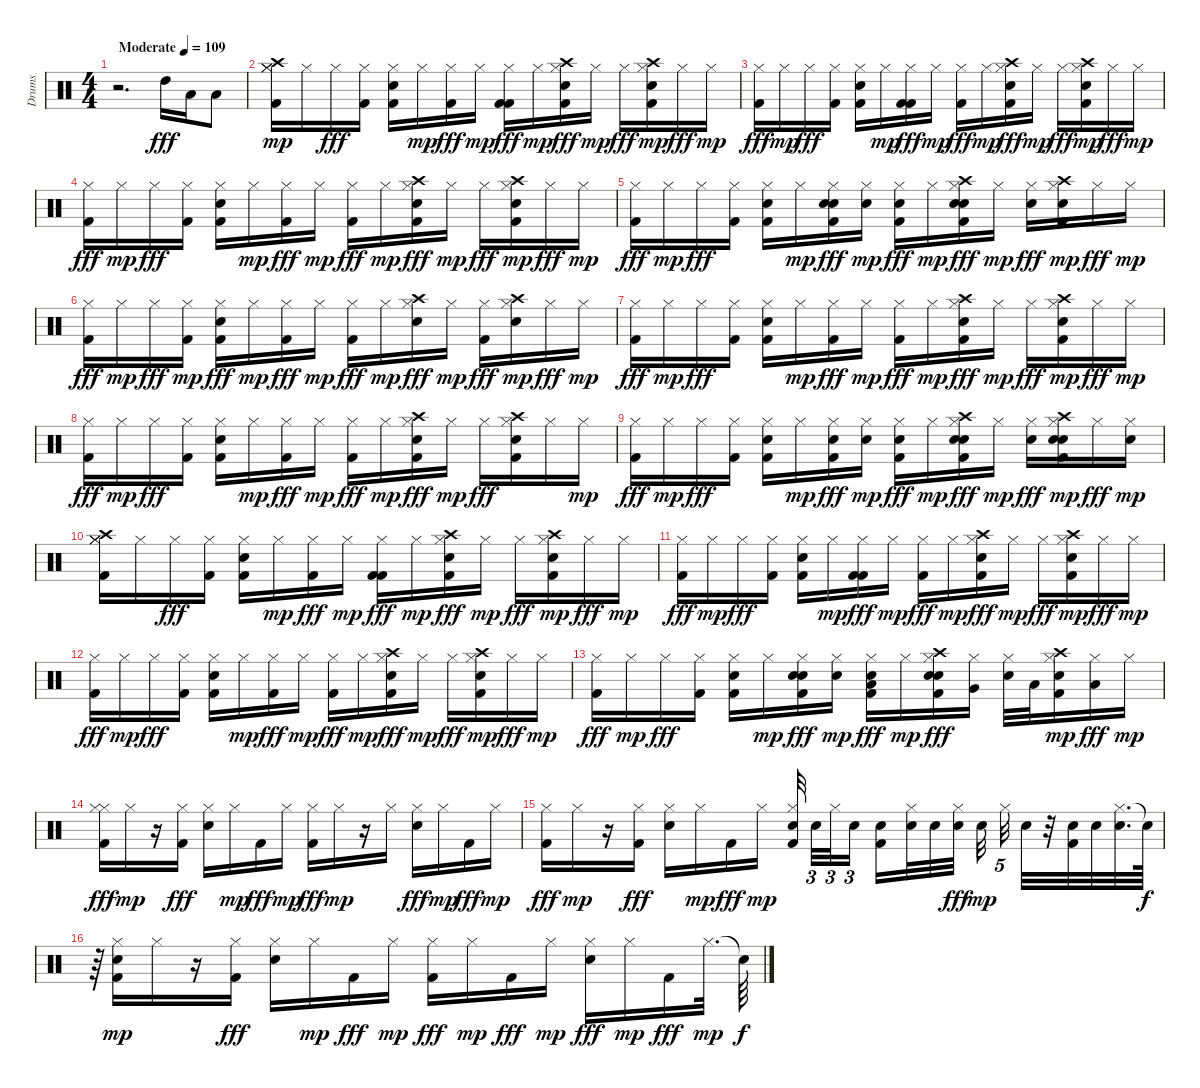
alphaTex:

\track ("Drums" "Drums") {instrument percussion}
\staff {score}
\articulation defaults
\ts (4 4)
\tempo (109 "Moderate")
\clef neutral
\ks c
r.2{d dy fff} "High Tom (hit)".16 "Low Tom (hit)".16 "Low Floor Tom (hit)".8 |
("Crash high (hit)" "Kick (hit) 2" "Hi-Hat (closed)" "Hi-Hat (closed)" "Hi-Hat (closed)").16{dy mp} "Hi-Hat (closed)".16 "Hi-Hat (closed)".16{dy fff} ("Hi-Hat (closed)" "Kick (hit) 2").16 ("Snare (hit) 2" "Kick (hit) 2" "Hi-Hat (closed)").16 "Hi-Hat (closed)".16{dy mp} ("Kick (hit) 2" "Hi-Hat (closed)").16{dy fff} "Hi-Hat (closed)".16{dy mp} ("Kick (hit) 2" "Kick (hit) 2" "Hi-Hat (closed)").16{dy fff} "Hi-Hat (closed)".16{dy mp} ("Crash high (hit)" "Snare (hit) 2" "Kick (hit) 2" "Hi-Hat (closed)").16{dy fff} "Hi-Hat (closed)".16{dy mp} "Hi-Hat (closed)".16{dy fff} ("Crash high (hit)" "Snare (hit) 2" "Kick (hit) 2" "Hi-Hat (closed)").16{dy mp} "Hi-Hat (closed)".16{dy fff} "Hi-Hat (closed)".16{dy mp} |
("Kick (hit) 2" "Hi-Hat (closed)").16{dy fff} "Hi-Hat (closed)".16{dy mp} "Hi-Hat (closed)".16{dy fff} ("Hi-Hat (closed)" "Kick (hit) 2").16 ("Snare (hit) 2" "Kick (hit) 2" "Hi-Hat (closed)").16 "Hi-Hat (closed)".16{dy mp} ("Kick (hit) 2" "Kick (hit) 2" "Hi-Hat (closed)").16{dy fff} "Hi-Hat (closed)".16{dy mp} ("Kick (hit) 2" "Hi-Hat (closed)").16{dy fff} "Hi-Hat (closed)".16{dy mp} ("Hi-Hat (closed)" "Crash high (hit)" "Snare (hit) 2" "Kick (hit) 2").16{dy fff} "Hi-Hat (closed)".16{dy mp} "Hi-Hat (closed)".16{dy fff} ("Kick (hit) 2" "Crash high (hit)" "Snare (hit) 2" "Hi-Hat (closed)").16{dy mp} "Hi-Hat (closed)".16{dy fff} "Hi-Hat (closed)".16{dy mp} |
("Kick (hit) 2" "Hi-Hat (closed)").16{dy fff} "Hi-Hat (closed)".16{dy mp} "Hi-Hat (closed)".16{dy fff} ("Hi-Hat (closed)" "Kick (hit) 2").16 ("Hi-Hat (closed)" "Snare (hit) 2" "Kick (hit) 2").16 "Hi-Hat (closed)".16{dy mp} ("Kick (hit) 2" "Hi-Hat (closed)").16{dy fff} "Hi-Hat (closed)".16{dy mp} ("Hi-Hat (closed)" "Kick (hit) 2").16{dy fff} "Hi-Hat (closed)".16{dy mp} ("Hi-Hat (closed)" "Crash high (hit)" "Kick (hit) 2" "Snare (hit) 2").16{dy fff} "Hi-Hat (closed)".16{dy mp} "Hi-Hat (closed)".16{dy fff} ("Crash high (hit)" "Kick (hit) 2" "Snare (hit) 2" "Hi-Hat (closed)").16{dy mp} "Hi-Hat (closed)".16{dy fff} "Hi-Hat (closed)".16{dy mp} |
("Kick (hit) 2" "Hi-Hat (closed)").16{dy fff} "Hi-Hat (closed)".16{dy mp} "Hi-Hat (closed)".16{dy fff} ("Hi-Hat (closed)" "Kick (hit) 2").16 ("Hi-Hat (closed)" "Snare (hit) 2" "Kick (hit) 2").16 "Hi-Hat (closed)".16{dy mp} ("Hi-Hat (closed)" "Kick (hit) 2" "Snare (hit) 2" "Snare (hit) 2").16{dy fff} ("Hi-Hat (closed)" "Snare (hit) 2").16{dy mp} ("Snare (hit) 2" "Hi-Hat (closed)" "Kick (hit) 2").16{dy fff} "Hi-Hat (closed)".16{dy mp} ("Snare (hit) 2" "Hi-Hat (closed)" "Crash high (hit)" "Snare (hit) 2" "Kick (hit) 2").16{dy fff} "Hi-Hat (closed)".16{dy mp} ("Snare (hit) 2" "Hi-Hat (closed)").16{dy fff} ("Kick (hit) 2" "Crash high (hit)" "Snare (hit) 2" "Hi-Hat (closed)").16{dy mp} "Hi-Hat (closed)".16{dy fff} "Hi-Hat (closed)".16{dy mp} |
("Hi-Hat (closed)" "Kick (hit) 2").16{dy fff} "Hi-Hat (closed)".16{dy mp} "Hi-Hat (closed)".16{dy fff} ("Kick (hit) 2" "Hi-Hat (closed)").16{dy mp} ("Hi-Hat (closed)" "Snare (hit) 2" "Kick (hit) 2").16{dy fff} "Hi-Hat (closed)".16{dy mp} ("Kick (hit) 2" "Hi-Hat (closed)").16{dy fff} "Hi-Hat (closed)".16{dy mp} ("Kick (hit) 2" "Hi-Hat (closed)").16{dy fff} "Hi-Hat (closed)".16{dy mp} ("Snare (hit) 2" "Crash high (hit)" "Hi-Hat (closed)").16{dy fff} "Hi-Hat (closed)".16{dy mp} ("Kick (hit) 2" "Hi-Hat (closed)").16{dy fff} ("Snare (hit) 2" "Crash high (hit)" "Hi-Hat (closed)").16{dy mp} "Hi-Hat (closed)".16{dy fff} "Hi-Hat (closed)".16{dy mp} |
("Kick (hit) 2" "Hi-Hat (closed)").16{dy fff} "Hi-Hat (closed)".16{dy mp} "Hi-Hat (closed)".16{dy fff} ("Hi-Hat (closed)" "Kick (hit) 2").16 ("Snare (hit) 2" "Kick (hit) 2" "Hi-Hat (closed)").16 "Hi-Hat (closed)".16{dy mp} ("Hi-Hat (closed)" "Kick (hit) 2").16{dy fff} "Hi-Hat (closed)".16{dy mp} ("Kick (hit) 2" "Hi-Hat (closed)").16{dy fff} "Hi-Hat (closed)".16{dy mp} ("Hi-Hat (closed)" "Snare (hit) 2" "Kick (hit) 2" "Crash high (hit)").16{dy fff} "Hi-Hat (closed)".16{dy mp} "Hi-Hat (closed)".16{dy fff} ("Snare (hit) 2" "Kick (hit) 2" "Crash high (hit)" "Hi-Hat (closed)").16{dy mp} "Hi-Hat (closed)".16{dy fff} "Hi-Hat (closed)".16{dy mp} |
("Kick (hit) 2" "Hi-Hat (closed)").16{dy fff} "Hi-Hat (closed)".16{dy mp} "Hi-Hat (closed)".16{dy fff} ("Hi-Hat (closed)" "Kick (hit) 2").16 ("Snare (hit) 2" "Kick (hit) 2" "Hi-Hat (closed)").16 "Hi-Hat (closed)".16{dy mp} ("Kick (hit) 2" "Hi-Hat (closed)").16{dy fff} "Hi-Hat (closed)".16{dy mp} ("Kick (hit) 2" "Hi-Hat (closed)").16{dy fff} "Hi-Hat (closed)".16{dy mp} ("Crash high (hit)" "Kick (hit) 2" "Snare (hit) 2" "Hi-Hat (closed)").16{dy fff} "Hi-Hat (closed)".16{dy mp} "Hi-Hat (closed)".16{dy fff} ("Hi-Hat (closed)" "Crash high (hit)" "Kick (hit) 2" "Snare (hit) 2").16 "Hi-Hat (closed)".16 "Hi-Hat (closed)".16{dy mp} |
("Kick (hit) 2" "Hi-Hat (closed)").16{dy fff} "Hi-Hat (closed)".16{dy mp} "Hi-Hat (closed)".16{dy fff} ("Hi-Hat (closed)" "Kick (hit) 2").16 ("Snare (hit) 2" "Kick (hit) 2" "Hi-Hat (closed)").16 "Hi-Hat (closed)".16{dy mp} ("Kick (hit) 2" "Hi-Hat (closed)" "Snare (hit) 2").16{dy fff} ("Snare (hit) 2" "Hi-Hat (closed)").16{dy mp} ("Snare (hit) 2" "Kick (hit) 2" "Hi-Hat (closed)").16{dy fff} "Hi-Hat (closed)".16{dy mp} ("Snare (hit) 2" "Crash high (hit)" "Kick (hit) 2" "Snare (hit) 2" "Hi-Hat (closed)").16{dy fff} "Hi-Hat (closed)".16{dy mp} ("Hi-Hat (closed)" "Snare (hit) 2").16{dy fff} ("Snare (hit) 2" "Crash high (hit)" "Snare (hit) 2" "Kick (hit) 2" "Hi-Hat (closed)").16{dy mp} "Hi-Hat (closed)".16{dy fff} ("Snare (hit) 2" "Hi-Hat (closed)").16{dy mp} |
("Crash high (hit)" "Kick (hit) 2" "Hi-Hat (closed)" "Hi-Hat (closed)" "Hi-Hat (closed)").16 "Hi-Hat (closed)".16 "Hi-Hat (closed)".16{dy fff} ("Hi-Hat (closed)" "Kick (hit) 2").16 ("Snare (hit) 2" "Kick (hit) 2" "Hi-Hat (closed)").16 "Hi-Hat (closed)".16{dy mp} ("Kick (hit) 2" "Hi-Hat (closed)").16{dy fff} "Hi-Hat (closed)".16{dy mp} ("Kick (hit) 2" "Kick (hit) 2" "Hi-Hat (closed)").16{dy fff} "Hi-Hat (closed)".16{dy mp} ("Crash high (hit)" "Snare (hit) 2" "Kick (hit) 2" "Hi-Hat (closed)").16{dy fff} "Hi-Hat (closed)".16{dy mp} "Hi-Hat (closed)".16{dy fff} ("Crash high (hit)" "Snare (hit) 2" "Kick (hit) 2" "Hi-Hat (closed)").16{dy mp} "Hi-Hat (closed)".16{dy fff} "Hi-Hat (closed)".16{dy mp} |
("Kick (hit) 2" "Hi-Hat (closed)").16{dy fff} "Hi-Hat (closed)".16{dy mp} "Hi-Hat (closed)".16{dy fff} ("Hi-Hat (closed)" "Kick (hit) 2").16 ("Snare (hit) 2" "Kick (hit) 2" "Hi-Hat (closed)").16 "Hi-Hat (closed)".16{dy mp} ("Kick (hit) 2" "Kick (hit) 2" "Hi-Hat (closed)").16{dy fff} "Hi-Hat (closed)".16{dy mp} ("Kick (hit) 2" "Hi-Hat (closed)").16{dy fff} "Hi-Hat (closed)".16{dy mp} ("Hi-Hat (closed)" "Crash high (hit)" "Snare (hit) 2" "Kick (hit) 2").16{dy fff} "Hi-Hat (closed)".16{dy mp} "Hi-Hat (closed)".16{dy fff} ("Kick (hit) 2" "Crash high (hit)" "Snare (hit) 2" "Hi-Hat (closed)").16{dy mp} "Hi-Hat (closed)".16{dy fff} "Hi-Hat (closed)".16{dy mp} |
("Kick (hit) 2" "Hi-Hat (closed)").16{dy fff} "Hi-Hat (closed)".16{dy mp} "Hi-Hat (closed)".16{dy fff} ("Hi-Hat (closed)" "Kick (hit) 2").16 ("Hi-Hat (closed)" "Snare (hit) 2" "Kick (hit) 2").16 "Hi-Hat (closed)".16{dy mp} ("Kick (hit) 2" "Hi-Hat (closed)").16{dy fff} "Hi-Hat (closed)".16{dy mp} ("Hi-Hat (closed)" "Kick (hit) 2").16{dy fff} "Hi-Hat (closed)".16{dy mp} ("Hi-Hat (closed)" "Crash high (hit)" "Kick (hit) 2" "Snare (hit) 2").16{dy fff} "Hi-Hat (closed)".16{dy mp} "Hi-Hat (closed)".16{dy fff} ("Crash high (hit)" "Kick (hit) 2" "Snare (hit) 2" "Hi-Hat (closed)").16{dy mp} "Hi-Hat (closed)".16{dy fff} "Hi-Hat (closed)".16{dy mp} |
("Kick (hit) 2" "Hi-Hat (closed)").16{dy fff} "Hi-Hat (closed)".16{dy mp} "Hi-Hat (closed)".16{dy fff} ("Hi-Hat (closed)" "Kick (hit) 2").16 ("Hi-Hat (closed)" "Snare (hit) 2" "Kick (hit) 2").16 "Hi-Hat (closed)".16{dy mp} ("Hi-Hat (closed)" "Kick (hit) 2" "Snare (hit) 2" "Snare (hit) 2").16{dy fff} ("Hi-Hat (closed)" "Snare (hit) 2").16{dy mp} ("Snare (hit) 2" "Hi-Hat (closed)" "Kick (hit) 2" "Low Tom (hit)").16{dy fff} "Hi-Hat (closed)".16{dy mp} ("Snare (hit) 2" "Hi-Hat (closed)" "Crash high (hit)" "Snare (hit) 2" "Kick (hit) 2").16{dy fff} ("Hi-Hat (closed)" "Very Low Tom (hit)").16 ("Snare (hit) 2" "Hi-Hat (closed)").32 "Low Floor Tom (hit)".32 ("Kick (hit) 2" "Crash high (hit)" "Snare (hit) 2" "Hi-Hat (closed)").16{dy mp} ("Hi-Hat (closed)" "Low Floor Tom (hit)").16{dy fff} "Hi-Hat (closed)".16{dy mp} |
("Kick (hit) 2" "Hi-Hat (closed)" "Hi-Hat (closed)").16{dy fff} "Hi-Hat (closed)".16{dy mp} r.16 ("Hi-Hat (closed)" "Kick (hit) 2").16{dy fff} ("Hi-Hat (closed)" "Snare (hit) 2").16 "Hi-Hat (closed)".16{dy mp} "Kick (hit) 2".16{dy fff} "Hi-Hat (closed)".16{dy mp} ("Hi-Hat (closed)" "Kick (hit) 2").16{dy fff} "Hi-Hat (closed)".16{dy mp} r.16 "Hi-Hat (closed)".16 ("Snare (hit) 2" "Hi-Hat (closed)").16{dy fff} "Hi-Hat (closed)".16{dy mp} "Kick (hit) 2".16{dy fff} "Hi-Hat (closed)".16{dy mp} |
("Hi-Hat (closed)" "Kick (hit) 2").16{dy fff} "Hi-Hat (closed)".16{dy mp} r.16 ("Hi-Hat (closed)" "Kick (hit) 2").16{dy fff} ("Hi-Hat (closed)" "Snare (hit) 2").16 "Hi-Hat (closed)".16{dy mp} "Kick (hit) 2".16{dy fff} "Hi-Hat (closed)".16{dy mp} ("Hi-Hat (closed)" "Kick (hit) 2" "Snare (hit) 2").32{beam splitsecondary} "Snare (hit) 2".32{tu (3 2)} "Hi-Hat (closed)".32{tu (3 2)} "Snare (hit) 2".16{tu (3 2) beam splitsecondary} ("Kick (hit) 2" "Snare (hit) 2").16 ("Snare (hit) 2" "Hi-Hat (closed)").32 "Snare (hit) 2".32 ("Hi-Hat (closed)" "Snare (hit) 2").32{dy fff} "Snare (hit) 2".32{dy mp beam splitsecondary} "Hi-Hat (closed)".32{tu (5 4)} "Snare (hit) 2".32 r.32 ("Kick (hit) 2" "Snare (hit) 2").32 "Snare (hit) 2".32 ("Hi-Hat (closed)" "Snare (hit) 2").32{d} "Snare (hit)"{t}.64{dy f} |
r.64 ("Kick (hit) 2" "Hi-Hat (closed)" "Snare (hit) 2").16{dy mp} "Hi-Hat (closed)".16 r.16 ("Hi-Hat (closed)" "Kick (hit) 2").16{dy fff} ("Hi-Hat (closed)" "Snare (hit) 2").16 "Hi-Hat (closed)".16{dy mp} "Kick (hit) 2".16{dy fff} "Hi-Hat (closed)".16{dy mp} ("Hi-Hat (closed)" "Kick (hit) 2").16{dy fff} "Hi-Hat (closed)".16{dy mp} "Kick (hit) 2".16{dy fff} "Hi-Hat (closed)".16{dy mp} ("Hi-Hat (closed)" "Snare (hit) 2").16{dy fff} "Hi-Hat (closed)".16{dy mp} "Kick (hit) 2".16{dy fff} "Hi-Hat (closed)".32{d dy mp} "Snare (hit)"{t}.64{dy f}
